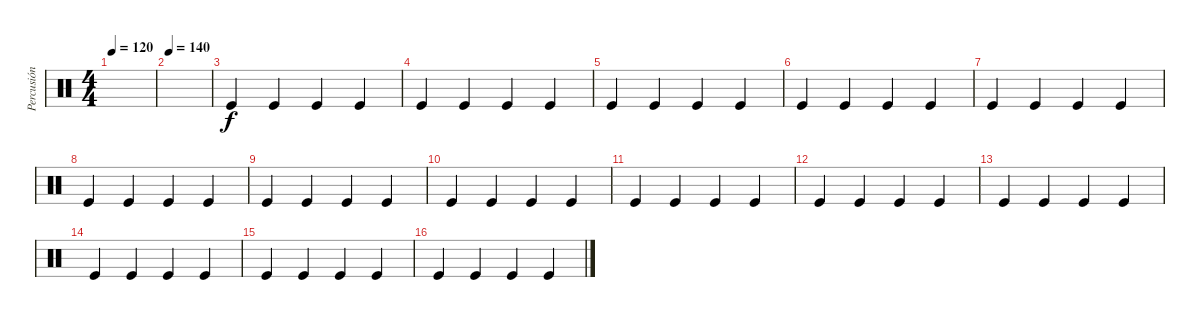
\track ("Percusión" "Percusión") {instrument percussion}
\staff {score}
\articulation defaults
\ts (4 4)
\tempo 120
\clef neutral
\ks c
|
\tempo 140
|
"Kick (hit)".4 "Kick (hit)".4 "Kick (hit)".4 "Kick (hit)".4 |
"Kick (hit)".4 "Kick (hit)".4 "Kick (hit)".4 "Kick (hit)".4 |
"Kick (hit)".4 "Kick (hit)".4 "Kick (hit)".4 "Kick (hit)".4 |
"Kick (hit)".4 "Kick (hit)".4 "Kick (hit)".4 "Kick (hit)".4 |
"Kick (hit)".4 "Kick (hit)".4 "Kick (hit)".4 "Kick (hit)".4 |
"Kick (hit)".4 "Kick (hit)".4 "Kick (hit)".4 "Kick (hit)".4 |
"Kick (hit)".4 "Kick (hit)".4 "Kick (hit)".4 "Kick (hit)".4 |
"Kick (hit)".4 "Kick (hit)".4 "Kick (hit)".4 "Kick (hit)".4 |
"Kick (hit)".4 "Kick (hit)".4 "Kick (hit)".4 "Kick (hit)".4 |
"Kick (hit)".4 "Kick (hit)".4 "Kick (hit)".4 "Kick (hit)".4 |
"Kick (hit)".4 "Kick (hit)".4 "Kick (hit)".4 "Kick (hit)".4 |
"Kick (hit)".4 "Kick (hit)".4 "Kick (hit)".4 "Kick (hit)".4 |
"Kick (hit)".4 "Kick (hit)".4 "Kick (hit)".4 "Kick (hit)".4 |
"Kick (hit)".4 "Kick (hit)".4 "Kick (hit)".4 "Kick (hit)".4
